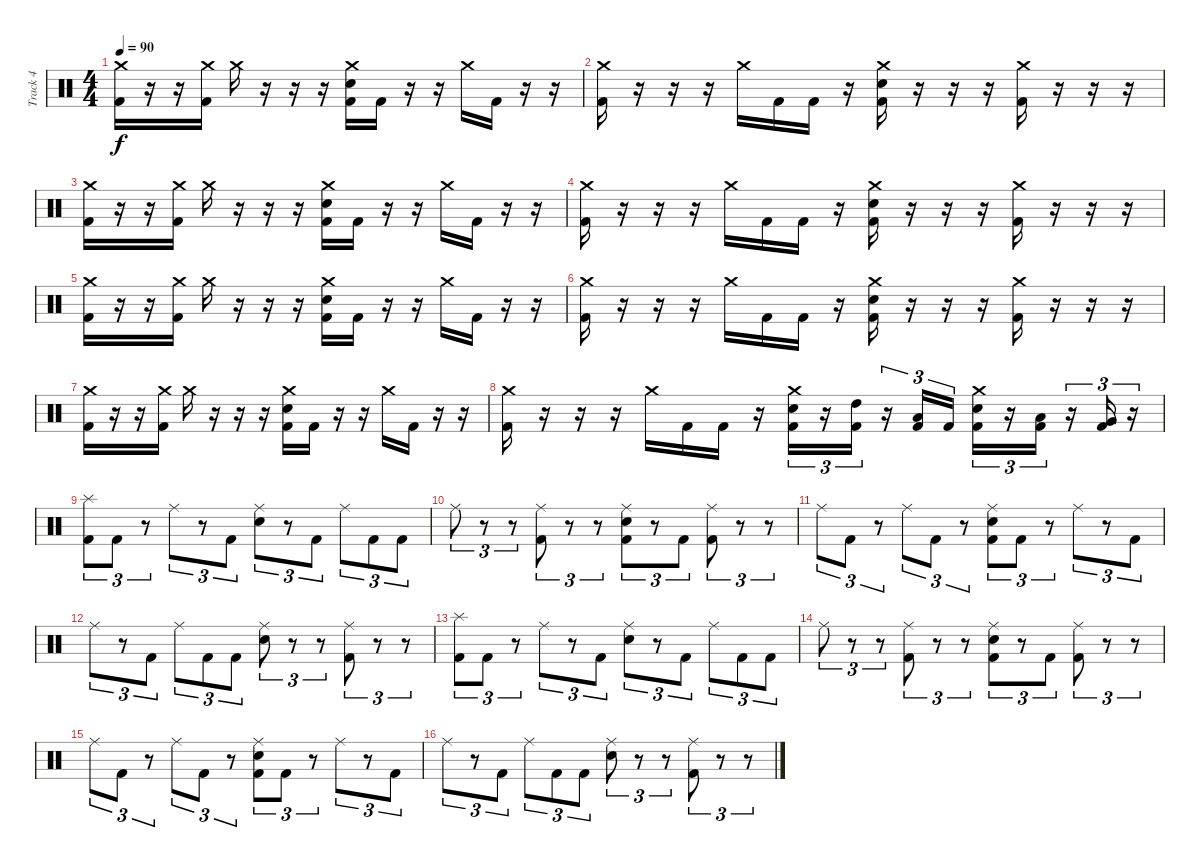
\track ("Track 4" "Track 4") {instrument percussion}
\staff {score}
\articulation defaults
\ts (4 4)
\tempo 90
\clef neutral
\ks c
("Crash medium (hit)" "Kick (hit) 2").16{dy f} r.16 r.16 ("Crash medium (hit)" "Kick (hit) 2").16 "Crash medium (hit)".16 r.16 r.16 r.16 ("Crash medium (hit)" "Electric Snare (hit)" "Kick (hit) 2").16 "Kick (hit) 2".16 r.16 r.16 "Crash medium (hit)".16 "Kick (hit) 2".16 r.16 r.16 |
("Crash medium (hit)" "Kick (hit) 2").16 r.16 r.16 r.16 "Crash medium (hit)".16 "Kick (hit) 2".16 "Kick (hit) 2".16 r.16 ("Crash medium (hit)" "Electric Snare (hit)" "Kick (hit) 2").16 r.16 r.16 r.16 ("Crash medium (hit)" "Kick (hit) 2").16 r.16 r.16 r.16 |
("Crash medium (hit)" "Kick (hit) 2").16 r.16 r.16 ("Crash medium (hit)" "Kick (hit) 2").16 "Crash medium (hit)".16 r.16 r.16 r.16 ("Crash medium (hit)" "Electric Snare (hit)" "Kick (hit) 2").16 "Kick (hit) 2".16 r.16 r.16 "Crash medium (hit)".16 "Kick (hit) 2".16 r.16 r.16 |
("Crash medium (hit)" "Kick (hit) 2").16 r.16 r.16 r.16 "Crash medium (hit)".16 "Kick (hit) 2".16 "Kick (hit) 2".16 r.16 ("Crash medium (hit)" "Electric Snare (hit)" "Kick (hit) 2").16 r.16 r.16 r.16 ("Crash medium (hit)" "Kick (hit) 2").16 r.16 r.16 r.16 |
("Crash medium (hit)" "Kick (hit) 2").16 r.16 r.16 ("Crash medium (hit)" "Kick (hit) 2").16 "Crash medium (hit)".16 r.16 r.16 r.16 ("Crash medium (hit)" "Electric Snare (hit)" "Kick (hit) 2").16 "Kick (hit) 2".16 r.16 r.16 "Crash medium (hit)".16 "Kick (hit) 2".16 r.16 r.16 |
("Crash medium (hit)" "Kick (hit) 2").16 r.16 r.16 r.16 "Crash medium (hit)".16 "Kick (hit) 2".16 "Kick (hit) 2".16 r.16 ("Crash medium (hit)" "Electric Snare (hit)" "Kick (hit) 2").16 r.16 r.16 r.16 ("Crash medium (hit)" "Kick (hit) 2").16 r.16 r.16 r.16 |
("Crash medium (hit)" "Kick (hit) 2").16 r.16 r.16 ("Crash medium (hit)" "Kick (hit) 2").16 "Crash medium (hit)".16 r.16 r.16 r.16 ("Crash medium (hit)" "Electric Snare (hit)" "Kick (hit) 2").16 "Kick (hit) 2".16 r.16 r.16 "Crash medium (hit)".16 "Kick (hit) 2".16 r.16 r.16 |
("Crash medium (hit)" "Kick (hit) 2").16 r.16 r.16 r.16 "Crash medium (hit)".16 "Kick (hit) 2".16 "Kick (hit) 2".16 r.16 ("Crash medium (hit)" "Electric Snare (hit)" "Kick (hit) 2").16{tu (3 2)} r.16{tu (3 2)} ("High Tom (hit)" "Kick (hit) 2").16{tu (3 2)} r.16{tu (3 2)} ("Low Tom (hit)" "Kick (hit) 2").16{tu (3 2)} "Kick (hit) 2".16{tu (3 2)} ("Crash medium (hit)" "Electric Snare (hit)" "Kick (hit) 2").16{tu (3 2)} r.16{tu (3 2)} ("Low Tom (hit)" "Kick (hit) 2").16{tu (3 2)} r.16{tu (3 2)} ("Very Low Tom (hit)" "Kick (hit) 2").16{tu (3 2)} r.16{tu (3 2)} |
("Splash (hit)" "Kick (hit) 2").8{tu (3 2)} "Kick (hit) 2".8{tu (3 2)} r.8{tu (3 2)} "Ride (middle)".8{tu (3 2)} r.8{tu (3 2)} "Kick (hit) 2".8{tu (3 2)} ("Ride (middle)" "Electric Snare (hit)").8{tu (3 2)} r.8{tu (3 2)} "Kick (hit) 2".8{tu (3 2)} "Ride (middle)".8{tu (3 2)} "Kick (hit) 2".8{tu (3 2)} "Kick (hit) 2".8{tu (3 2)} |
"Ride (middle)".8{tu (3 2)} r.8{tu (3 2)} r.8{tu (3 2)} ("Ride (middle)" "Kick (hit) 2").8{tu (3 2)} r.8{tu (3 2)} r.8{tu (3 2)} ("Ride (middle)" "Electric Snare (hit)" "Kick (hit) 2").8{tu (3 2)} r.8{tu (3 2)} "Kick (hit) 2".8{tu (3 2)} ("Ride (middle)" "Kick (hit) 2").8{tu (3 2)} r.8{tu (3 2)} r.8{tu (3 2)} |
"Ride (middle)".8{tu (3 2)} "Kick (hit) 2".8{tu (3 2)} r.8{tu (3 2)} "Ride (middle)".8{tu (3 2)} "Kick (hit) 2".8{tu (3 2)} r.8{tu (3 2)} ("Ride (middle)" "Electric Snare (hit)" "Kick (hit) 2").8{tu (3 2)} "Kick (hit) 2".8{tu (3 2)} r.8{tu (3 2)} "Ride (middle)".8{tu (3 2)} r.8{tu (3 2)} "Kick (hit) 2".8{tu (3 2)} |
"Ride (middle)".8{tu (3 2)} r.8{tu (3 2)} "Kick (hit) 2".8{tu (3 2)} "Ride (middle)".8{tu (3 2)} "Kick (hit) 2".8{tu (3 2)} "Kick (hit) 2".8{tu (3 2)} ("Ride (middle)" "Electric Snare (hit)").8{tu (3 2)} r.8{tu (3 2)} r.8{tu (3 2)} ("Ride (middle)" "Kick (hit) 2").8{tu (3 2)} r.8{tu (3 2)} r.8{tu (3 2)} |
("Splash (hit)" "Kick (hit) 2").8{tu (3 2)} "Kick (hit) 2".8{tu (3 2)} r.8{tu (3 2)} "Ride (middle)".8{tu (3 2)} r.8{tu (3 2)} "Kick (hit) 2".8{tu (3 2)} ("Ride (middle)" "Electric Snare (hit)").8{tu (3 2)} r.8{tu (3 2)} "Kick (hit) 2".8{tu (3 2)} "Ride (middle)".8{tu (3 2)} "Kick (hit) 2".8{tu (3 2)} "Kick (hit) 2".8{tu (3 2)} |
"Ride (middle)".8{tu (3 2)} r.8{tu (3 2)} r.8{tu (3 2)} ("Ride (middle)" "Kick (hit) 2").8{tu (3 2)} r.8{tu (3 2)} r.8{tu (3 2)} ("Ride (middle)" "Electric Snare (hit)" "Kick (hit) 2").8{tu (3 2)} r.8{tu (3 2)} "Kick (hit) 2".8{tu (3 2)} ("Ride (middle)" "Kick (hit) 2").8{tu (3 2)} r.8{tu (3 2)} r.8{tu (3 2)} |
"Ride (middle)".8{tu (3 2)} "Kick (hit) 2".8{tu (3 2)} r.8{tu (3 2)} "Ride (middle)".8{tu (3 2)} "Kick (hit) 2".8{tu (3 2)} r.8{tu (3 2)} ("Ride (middle)" "Electric Snare (hit)" "Kick (hit) 2").8{tu (3 2)} "Kick (hit) 2".8{tu (3 2)} r.8{tu (3 2)} "Ride (middle)".8{tu (3 2)} r.8{tu (3 2)} "Kick (hit) 2".8{tu (3 2)} |
"Ride (middle)".8{tu (3 2)} r.8{tu (3 2)} "Kick (hit) 2".8{tu (3 2)} "Ride (middle)".8{tu (3 2)} "Kick (hit) 2".8{tu (3 2)} "Kick (hit) 2".8{tu (3 2)} ("Ride (middle)" "Electric Snare (hit)").8{tu (3 2)} r.8{tu (3 2)} r.8{tu (3 2)} ("Ride (middle)" "Kick (hit) 2").8{tu (3 2)} r.8{tu (3 2)} r.8{tu (3 2)}
